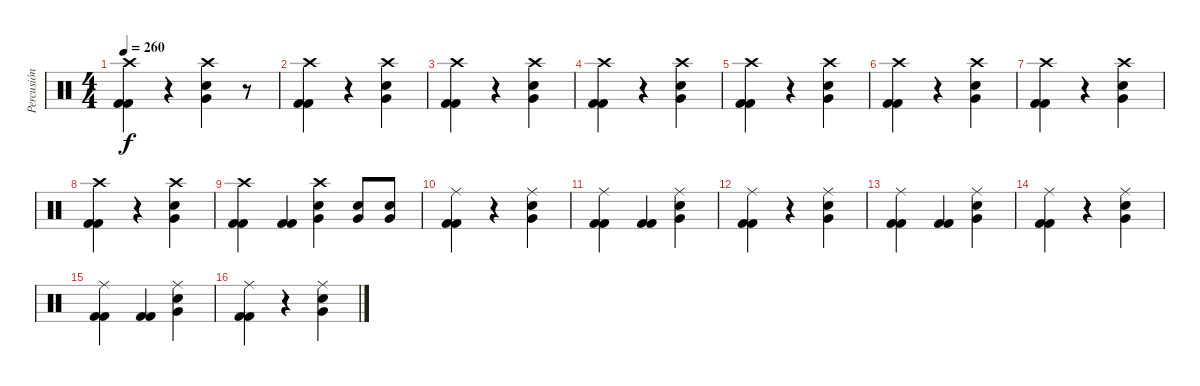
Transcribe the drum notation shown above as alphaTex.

\track ("Percusión" "Percusión") {instrument percussion}
\staff {score}
\articulation defaults
\ts (4 4)
\tempo 260
\clef neutral
\ks c
("Kick (hit) 2" "Kick (hit) 2" "Crash high (hit)").4{dy f} r.4 ("Very Low Tom (hit)" "Electric Snare (hit)" "Crash high (hit)").4 r.8 |
("Kick (hit) 2" "Kick (hit) 2" "Crash high (hit)").4 r.4 ("Very Low Tom (hit)" "Electric Snare (hit)" "Crash high (hit)").4 |
("Kick (hit) 2" "Kick (hit) 2" "Crash high (hit)").4 r.4 ("Very Low Tom (hit)" "Electric Snare (hit)" "Crash high (hit)").4 |
("Kick (hit) 2" "Kick (hit) 2" "Crash high (hit)").4 r.4 ("Very Low Tom (hit)" "Electric Snare (hit)" "Crash high (hit)").4 |
("Kick (hit) 2" "Kick (hit) 2" "Crash high (hit)").4 r.4 ("Very Low Tom (hit)" "Electric Snare (hit)" "Crash high (hit)").4 |
("Kick (hit) 2" "Kick (hit) 2" "Crash high (hit)").4 r.4 ("Very Low Tom (hit)" "Electric Snare (hit)" "Crash high (hit)").4 |
("Kick (hit) 2" "Kick (hit) 2" "Crash high (hit)").4 r.4 ("Very Low Tom (hit)" "Electric Snare (hit)" "Crash high (hit)").4 |
("Kick (hit) 2" "Kick (hit) 2" "Crash high (hit)").4 r.4 ("Very Low Tom (hit)" "Electric Snare (hit)" "Crash high (hit)").4 |
("Kick (hit) 2" "Kick (hit) 2" "Crash high (hit)").4 ("Kick (hit) 2" "Kick (hit) 2").4 ("Very Low Tom (hit)" "Electric Snare (hit)" "Crash high (hit)").4 ("Very Low Tom (hit)" "Electric Snare (hit)").8 ("Very Low Tom (hit)" "Electric Snare (hit)").8 |
("Kick (hit) 2" "Kick (hit) 2" "Ride (middle)").4 r.4 ("Electric Snare (hit)" "Very Low Tom (hit)" "Ride (middle)").4 |
("Kick (hit) 2" "Kick (hit) 2" "Ride (middle)").4 ("Kick (hit) 2" "Kick (hit) 2").4 ("Electric Snare (hit)" "Very Low Tom (hit)" "Ride (middle)").4 |
("Kick (hit) 2" "Kick (hit) 2" "Ride (middle)").4 r.4 ("Electric Snare (hit)" "Very Low Tom (hit)" "Ride (middle)").4 |
("Kick (hit) 2" "Kick (hit) 2" "Ride (middle)").4 ("Kick (hit) 2" "Kick (hit) 2").4 ("Electric Snare (hit)" "Very Low Tom (hit)" "Ride (middle)").4 |
("Kick (hit) 2" "Kick (hit) 2" "Ride (middle)").4 r.4 ("Electric Snare (hit)" "Very Low Tom (hit)" "Ride (middle)").4 |
("Kick (hit) 2" "Kick (hit) 2" "Ride (middle)").4 ("Kick (hit) 2" "Kick (hit) 2").4 ("Electric Snare (hit)" "Very Low Tom (hit)" "Ride (middle)").4 |
("Kick (hit) 2" "Kick (hit) 2" "Ride (middle)").4 r.4 ("Electric Snare (hit)" "Very Low Tom (hit)" "Ride (middle)").4
